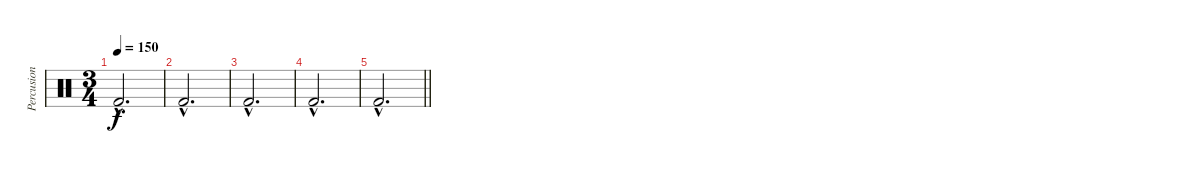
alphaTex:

\track ("Percusion" "Percusion") {instrument percussion}
\staff {score}
\articulation defaults
\ts (3 4)
\tempo 150
\clef neutral
\ks c "Kick (hit) 2"{hac}.2{d dy f}
|
"Kick (hit) 2"{hac}.2{d} |
"Kick (hit) 2"{hac}.2{d} |
"Kick (hit) 2"{hac}.2{d} |
\barLineRight lightlight "Kick (hit) 2"{hac}.2{d}
